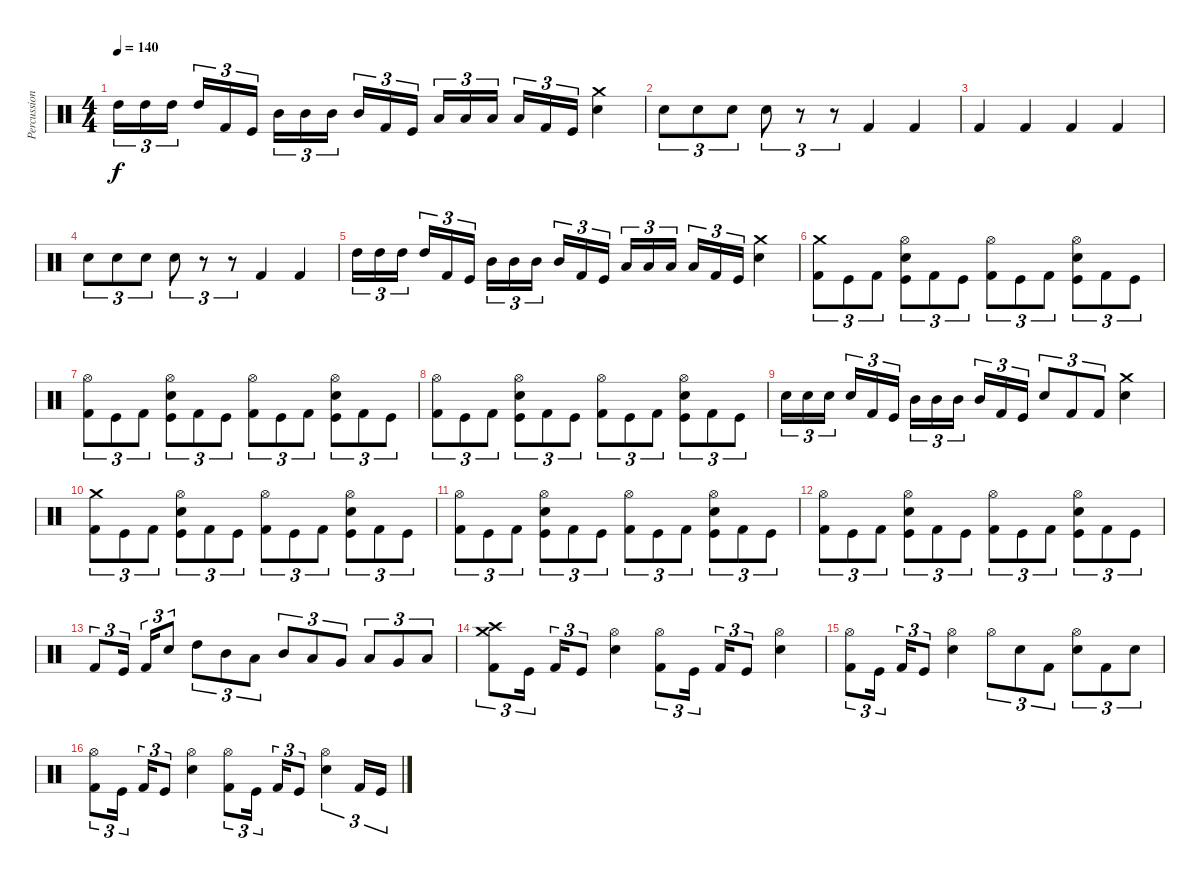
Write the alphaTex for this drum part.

\track ("Percussion" "Percussion") {instrument percussion}
\staff {score}
\articulation defaults
\ts (4 4)
\tempo 140
\clef neutral
\ks c "High Tom (hit)".16{tu (3 2) dy f} "High Tom (hit)".16{tu (3 2)} "High Tom (hit)".16{tu (3 2) beam splitsecondary} "High Tom (hit)".16{tu (3 2)} "Kick (hit) 2".16{tu (3 2)} "Kick (hit)".16{tu (3 2)} "Mid Tom (hit)".16{tu (3 2)} "Mid Tom (hit)".16{tu (3 2)} "Mid Tom (hit)".16{tu (3 2) beam splitsecondary} "Mid Tom (hit)".16{tu (3 2)} "Kick (hit) 2".16{tu (3 2)} "Kick (hit)".16{tu (3 2)} "Low Tom (hit)".16{tu (3 2)} "Low Tom (hit)".16{tu (3 2)} "Low Tom (hit)".16{tu (3 2) beam splitsecondary} "Low Tom (hit)".16{tu (3 2)} "Kick (hit) 2".16{tu (3 2)} "Kick (hit)".16{tu (3 2)}
("Crash medium (hit)" "Snare (hit) 2").4 |
"Snare (hit) 2".8{tu (3 2)} "Snare (hit) 2".8{tu (3 2)} "Snare (hit) 2".8{tu (3 2)} "Snare (hit) 2".8{tu (3 2)} r.8{tu (3 2)} r.8{tu (3 2)} "Kick (hit) 2".4 "Kick (hit) 2".4 |
"Kick (hit) 2".4 "Kick (hit) 2".4 "Kick (hit) 2".4 "Kick (hit) 2".4 |
"Snare (hit) 2".8{tu (3 2)} "Snare (hit) 2".8{tu (3 2)} "Snare (hit) 2".8{tu (3 2)} "Snare (hit) 2".8{tu (3 2)} r.8{tu (3 2)} r.8{tu (3 2)} "Kick (hit) 2".4 "Kick (hit) 2".4 |
"High Tom (hit)".16{tu (3 2)} "High Tom (hit)".16{tu (3 2)} "High Tom (hit)".16{tu (3 2) beam splitsecondary} "High Tom (hit)".16{tu (3 2)} "Kick (hit) 2".16{tu (3 2)} "Kick (hit)".16{tu (3 2)} "Mid Tom (hit)".16{tu (3 2)} "Mid Tom (hit)".16{tu (3 2)} "Mid Tom (hit)".16{tu (3 2) beam splitsecondary} "Mid Tom (hit)".16{tu (3 2)} "Kick (hit) 2".16{tu (3 2)} "Kick (hit)".16{tu (3 2)} "Low Tom (hit)".16{tu (3 2)} "Low Tom (hit)".16{tu (3 2)} "Low Tom (hit)".16{tu (3 2) beam splitsecondary} "Low Tom (hit)".16{tu (3 2)} "Kick (hit) 2".16{tu (3 2)} "Kick (hit)".16{tu (3 2)} ("Crash medium (hit)" "Snare (hit) 2").4 |
("Crash medium (hit)" "Kick (hit) 2").8{tu (3 2)} "Kick (hit)".8{tu (3 2)} "Kick (hit) 2".8{tu (3 2)} ("Hi-Hat (open)" "Snare (hit) 2" "Kick (hit)").8{tu (3 2)} "Kick (hit) 2".8{tu (3 2)} "Kick (hit)".8{tu (3 2)} ("Hi-Hat (open)" "Kick (hit) 2").8{tu (3 2)} "Kick (hit)".8{tu (3 2)} "Kick (hit) 2".8{tu (3 2)} ("Hi-Hat (open)" "Snare (hit) 2" "Kick (hit)").8{tu (3 2)} "Kick (hit) 2".8{tu (3 2)} "Kick (hit)".8{tu (3 2)} |
("Hi-Hat (open)" "Kick (hit) 2").8{tu (3 2)} "Kick (hit)".8{tu (3 2)} "Kick (hit) 2".8{tu (3 2)} ("Hi-Hat (open)" "Snare (hit) 2" "Kick (hit)").8{tu (3 2)} "Kick (hit) 2".8{tu (3 2)} "Kick (hit)".8{tu (3 2)} ("Hi-Hat (open)" "Kick (hit) 2").8{tu (3 2)} "Kick (hit)".8{tu (3 2)} "Kick (hit) 2".8{tu (3 2)} ("Hi-Hat (open)" "Snare (hit) 2" "Kick (hit)").8{tu (3 2)} "Kick (hit) 2".8{tu (3 2)} "Kick (hit)".8{tu (3 2)} |
("Hi-Hat (open)" "Kick (hit) 2").8{tu (3 2)} "Kick (hit)".8{tu (3 2)} "Kick (hit) 2".8{tu (3 2)} ("Hi-Hat (open)" "Snare (hit) 2" "Kick (hit)").8{tu (3 2)} "Kick (hit) 2".8{tu (3 2)} "Kick (hit)".8{tu (3 2)} ("Hi-Hat (open)" "Kick (hit) 2").8{tu (3 2)} "Kick (hit)".8{tu (3 2)} "Kick (hit) 2".8{tu (3 2)} ("Hi-Hat (open)" "Snare (hit) 2" "Kick (hit)").8{tu (3 2)} "Kick (hit) 2".8{tu (3 2)} "Kick (hit)".8{tu (3 2)} |
"Snare (hit) 2".16{tu (3 2)} "Snare (hit) 2".16{tu (3 2)} "Snare (hit) 2".16{tu (3 2) beam splitsecondary} "Snare (hit) 2".16{tu (3 2)} "Kick (hit) 2".16{tu (3 2)} "Kick (hit)".16{tu (3 2)} "Mid Tom (hit)".16{tu (3 2)} "Mid Tom (hit)".16{tu (3 2)} "Mid Tom (hit)".16{tu (3 2) beam splitsecondary} "Mid Tom (hit)".16{tu (3 2)} "Kick (hit) 2".16{tu (3 2)} "Kick (hit)".16{tu (3 2)} "Snare (hit) 2".8{tu (3 2)} "Kick (hit) 2".8{tu (3 2)} "Kick (hit) 2".8{tu (3 2)} ("Crash medium (hit)" "Snare (hit) 2").4 |
("Crash medium (hit)" "Kick (hit) 2").8{tu (3 2)} "Kick (hit)".8{tu (3 2)} "Kick (hit) 2".8{tu (3 2)} ("Hi-Hat (open)" "Snare (hit) 2" "Kick (hit)").8{tu (3 2)} "Kick (hit) 2".8{tu (3 2)} "Kick (hit)".8{tu (3 2)} ("Hi-Hat (open)" "Kick (hit) 2").8{tu (3 2)} "Kick (hit)".8{tu (3 2)} "Kick (hit) 2".8{tu (3 2)} ("Hi-Hat (open)" "Snare (hit) 2" "Kick (hit)").8{tu (3 2)} "Kick (hit) 2".8{tu (3 2)} "Kick (hit)".8{tu (3 2)} |
("Hi-Hat (open)" "Kick (hit) 2").8{tu (3 2)} "Kick (hit)".8{tu (3 2)} "Kick (hit) 2".8{tu (3 2)} ("Hi-Hat (open)" "Snare (hit) 2" "Kick (hit)").8{tu (3 2)} "Kick (hit) 2".8{tu (3 2)} "Kick (hit)".8{tu (3 2)} ("Hi-Hat (open)" "Kick (hit) 2").8{tu (3 2)} "Kick (hit)".8{tu (3 2)} "Kick (hit) 2".8{tu (3 2)} ("Hi-Hat (open)" "Snare (hit) 2" "Kick (hit)").8{tu (3 2)} "Kick (hit) 2".8{tu (3 2)} "Kick (hit)".8{tu (3 2)} |
("Hi-Hat (open)" "Kick (hit) 2").8{tu (3 2)} "Kick (hit)".8{tu (3 2)} "Kick (hit) 2".8{tu (3 2)} ("Hi-Hat (open)" "Snare (hit) 2" "Kick (hit)").8{tu (3 2)} "Kick (hit) 2".8{tu (3 2)} "Kick (hit)".8{tu (3 2)} ("Hi-Hat (open)" "Kick (hit) 2").8{tu (3 2)} "Kick (hit)".8{tu (3 2)} "Kick (hit) 2".8{tu (3 2)} ("Hi-Hat (open)" "Snare (hit) 2" "Kick (hit)").8{tu (3 2)} "Kick (hit) 2".8{tu (3 2)} "Kick (hit)".8{tu (3 2)} |
"Kick (hit) 2".8{tu (3 2)} "Kick (hit)".16{tu (3 2) beam splitsecondary} "Kick (hit) 2".16{tu (3 2)} "Snare (hit) 2".8{tu (3 2)} "High Tom (hit)".8{tu (3 2)} "Mid Tom (hit)".8{tu (3 2)} "Low Tom (hit)".8{tu (3 2)} "Mid Tom (hit)".8{tu (3 2)} "Low Tom (hit)".8{tu (3 2)} "Very Low Tom (hit)".8{tu (3 2)} "Low Tom (hit)".8{tu (3 2)} "Very Low Tom (hit)".8{tu (3 2)} "Low Floor Tom (hit)".8{tu (3 2)} |
("Crash medium (hit)" "Crash high (hit)" "Kick (hit) 2").8{tu (3 2)} "Kick (hit)".16{tu (3 2) beam splitsecondary} "Kick (hit) 2".16{tu (3 2)} "Kick (hit)".8{tu (3 2)} ("Hi-Hat (open)" "Snare (hit) 2").4 ("Hi-Hat (open)" "Kick (hit) 2").8{tu (3 2)} "Kick (hit)".16{tu (3 2) beam splitsecondary} "Kick (hit) 2".16{tu (3 2)} "Kick (hit)".8{tu (3 2)} ("Hi-Hat (open)" "Snare (hit) 2").4 |
("Hi-Hat (open)" "Kick (hit) 2").8{tu (3 2)} "Kick (hit)".16{tu (3 2) beam splitsecondary} "Kick (hit) 2".16{tu (3 2)} "Kick (hit)".8{tu (3 2)} ("Hi-Hat (open)" "Snare (hit) 2").4 "Hi-Hat (open)".8{tu (3 2)} "Snare (hit) 2".8{tu (3 2)} "Kick (hit) 2".8{tu (3 2)} ("Hi-Hat (open)" "Snare (hit) 2").8{tu (3 2)} "Kick (hit) 2".8{tu (3 2)} "Snare (hit) 2".8{tu (3 2)} |
("Hi-Hat (open)" "Kick (hit) 2").8{tu (3 2)} "Kick (hit)".16{tu (3 2) beam splitsecondary} "Kick (hit) 2".16{tu (3 2)} "Kick (hit)".8{tu (3 2)} ("Hi-Hat (open)" "Snare (hit) 2").4 ("Hi-Hat (open)" "Kick (hit) 2").8{tu (3 2)} "Kick (hit)".16{tu (3 2) beam splitsecondary} "Kick (hit) 2".16{tu (3 2)} "Kick (hit)".8{tu (3 2)} ("Hi-Hat (open)" "Snare (hit) 2").4{tu (3 2)} "Kick (hit) 2".16{tu (3 2)} "Kick (hit)".16{tu (3 2)}
